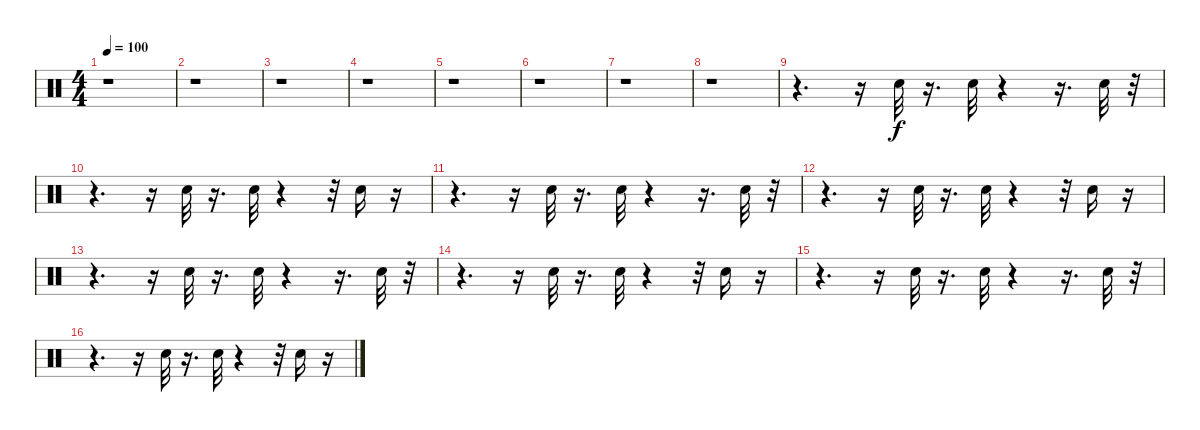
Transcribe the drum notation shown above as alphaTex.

\track "" {instrument percussion}
\staff {score}
\articulation defaults
\ts (4 4)
\tempo 100
\clef neutral
\ks c
r.1{dy f} |
r.1 |
r.1 |
r.1 |
r.1 |
r.1 |
r.1 |
r.1 |
r.4{d} r.16 "Snare (hit)".32 r.16{d} "Snare (hit)".32 r.4 r.16{d} "Snare (hit)".32 r.32 |
r.4{d} r.16 "Snare (hit)".32 r.16{d} "Snare (hit)".32 r.4 r.32 "Snare (hit)".16 r.16 |
r.4{d} r.16 "Snare (hit)".32 r.16{d} "Snare (hit)".32 r.4 r.16{d} "Snare (hit)".32 r.32 |
r.4{d} r.16 "Snare (hit)".32 r.16{d} "Snare (hit)".32 r.4 r.32 "Snare (hit)".16 r.16 |
r.4{d} r.16 "Snare (hit)".32 r.16{d} "Snare (hit)".32 r.4 r.16{d} "Snare (hit)".32 r.32 |
r.4{d} r.16 "Snare (hit)".32 r.16{d} "Snare (hit)".32 r.4 r.32 "Snare (hit)".16 r.16 |
r.4{d} r.16 "Snare (hit)".32 r.16{d} "Snare (hit)".32 r.4 r.16{d} "Snare (hit)".32 r.32 |
r.4{d} r.16 "Snare (hit)".32 r.16{d} "Snare (hit)".32 r.4 r.32 "Snare (hit)".16 r.16
